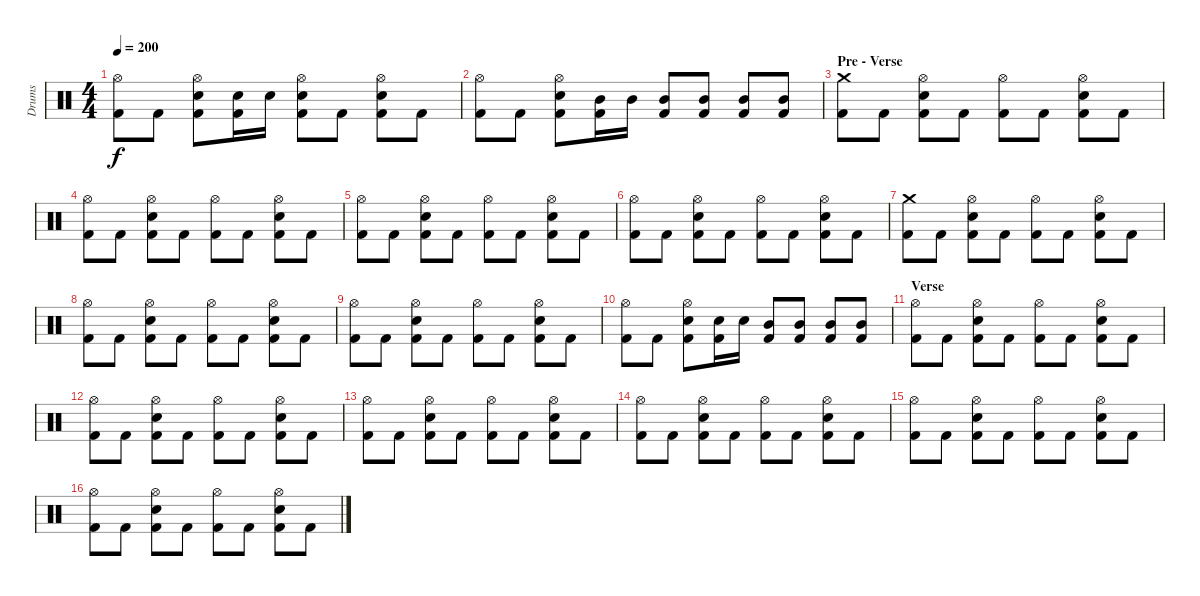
\track ("Drums" "Drums") {instrument percussion}
\staff {score}
\articulation defaults
\ts (4 4)
\tempo 200
\clef neutral
\ks c
("Hi-Hat (open)" "Kick (hit) 2").8{dy f} "Kick (hit) 2".8 ("Hi-Hat (open)" "Snare (hit) 2" "Kick (hit) 2").8 ("Snare (hit) 2" "Kick (hit) 2").16 "Snare (hit) 2".16 ("Hi-Hat (open)" "Snare (hit) 2" "Kick (hit) 2").8 "Kick (hit) 2".8 ("Hi-Hat (open)" "Snare (hit) 2" "Kick (hit) 2").8 "Kick (hit) 2".8 |
("Hi-Hat (open)" "Kick (hit) 2").8 "Kick (hit) 2".8 ("Hi-Hat (open)" "Snare (hit) 2" "Kick (hit) 2").8 ("Mid Tom (hit)" "Kick (hit) 2").16 "Mid Tom (hit)".16 ("Mid Tom (hit)" "Kick (hit) 2").8 ("Mid Tom (hit)" "Kick (hit) 2").8 ("Mid Tom (hit)" "Kick (hit) 2").8 ("Mid Tom (hit)" "Kick (hit) 2").8 |
\section ("" "Pre - Verse")
("Crash medium (hit)" "Kick (hit) 2").8 "Kick (hit) 2".8 ("Hi-Hat (open)" "Snare (hit) 2" "Kick (hit) 2").8 "Kick (hit) 2".8 ("Hi-Hat (open)" "Kick (hit) 2").8 "Kick (hit) 2".8 ("Hi-Hat (open)" "Snare (hit) 2" "Kick (hit) 2").8 "Kick (hit) 2".8 |
("Hi-Hat (open)" "Kick (hit) 2").8 "Kick (hit) 2".8 ("Hi-Hat (open)" "Snare (hit) 2" "Kick (hit) 2").8 "Kick (hit) 2".8 ("Hi-Hat (open)" "Kick (hit) 2").8 "Kick (hit) 2".8 ("Hi-Hat (open)" "Snare (hit) 2" "Kick (hit) 2").8 "Kick (hit) 2".8 |
("Hi-Hat (open)" "Kick (hit) 2").8 "Kick (hit) 2".8 ("Hi-Hat (open)" "Snare (hit) 2" "Kick (hit) 2").8 "Kick (hit) 2".8 ("Hi-Hat (open)" "Kick (hit) 2").8 "Kick (hit) 2".8 ("Hi-Hat (open)" "Snare (hit) 2" "Kick (hit) 2").8 "Kick (hit) 2".8 |
("Hi-Hat (open)" "Kick (hit) 2").8 "Kick (hit) 2".8 ("Hi-Hat (open)" "Snare (hit) 2" "Kick (hit) 2").8 "Kick (hit) 2".8 ("Hi-Hat (open)" "Kick (hit) 2").8 "Kick (hit) 2".8 ("Hi-Hat (open)" "Snare (hit) 2" "Kick (hit) 2").8 "Kick (hit) 2".8 |
("Crash medium (hit)" "Kick (hit) 2").8 "Kick (hit) 2".8 ("Hi-Hat (open)" "Snare (hit) 2" "Kick (hit) 2").8 "Kick (hit) 2".8 ("Hi-Hat (open)" "Kick (hit) 2").8 "Kick (hit) 2".8 ("Hi-Hat (open)" "Snare (hit) 2" "Kick (hit) 2").8 "Kick (hit) 2".8 |
("Hi-Hat (open)" "Kick (hit) 2").8 "Kick (hit) 2".8 ("Hi-Hat (open)" "Snare (hit) 2" "Kick (hit) 2").8 "Kick (hit) 2".8 ("Hi-Hat (open)" "Kick (hit) 2").8 "Kick (hit) 2".8 ("Hi-Hat (open)" "Snare (hit) 2" "Kick (hit) 2").8 "Kick (hit) 2".8 |
("Hi-Hat (open)" "Kick (hit) 2").8 "Kick (hit) 2".8 ("Hi-Hat (open)" "Snare (hit) 2" "Kick (hit) 2").8 "Kick (hit) 2".8 ("Hi-Hat (open)" "Kick (hit) 2").8 "Kick (hit) 2".8 ("Hi-Hat (open)" "Snare (hit) 2" "Kick (hit) 2").8 "Kick (hit) 2".8 |
("Hi-Hat (open)" "Kick (hit) 2").8 "Kick (hit) 2".8 ("Hi-Hat (open)" "Snare (hit) 2" "Kick (hit) 2").8 ("Snare (hit) 2" "Kick (hit) 2").16 "Snare (hit) 2".16 ("Mid Tom (hit)" "Kick (hit) 2").8 ("Mid Tom (hit)" "Kick (hit) 2").8 ("Mid Tom (hit)" "Kick (hit) 2").8 ("Mid Tom (hit)" "Kick (hit) 2").8 |
\section ("" "Verse")
("Hi-Hat (open)" "Kick (hit) 2").8 "Kick (hit) 2".8 ("Hi-Hat (open)" "Snare (hit) 2" "Kick (hit) 2").8 "Kick (hit) 2".8 ("Hi-Hat (open)" "Kick (hit) 2").8 "Kick (hit) 2".8 ("Hi-Hat (open)" "Snare (hit) 2" "Kick (hit) 2").8 "Kick (hit) 2".8 |
("Hi-Hat (open)" "Kick (hit) 2").8 "Kick (hit) 2".8 ("Hi-Hat (open)" "Snare (hit) 2" "Kick (hit) 2").8 "Kick (hit) 2".8 ("Hi-Hat (open)" "Kick (hit) 2").8 "Kick (hit) 2".8 ("Hi-Hat (open)" "Snare (hit) 2" "Kick (hit) 2").8 "Kick (hit) 2".8 |
("Hi-Hat (open)" "Kick (hit) 2").8 "Kick (hit) 2".8 ("Hi-Hat (open)" "Snare (hit) 2" "Kick (hit) 2").8 "Kick (hit) 2".8 ("Hi-Hat (open)" "Kick (hit) 2").8 "Kick (hit) 2".8 ("Hi-Hat (open)" "Snare (hit) 2" "Kick (hit) 2").8 "Kick (hit) 2".8 |
("Hi-Hat (open)" "Kick (hit) 2").8 "Kick (hit) 2".8 ("Hi-Hat (open)" "Snare (hit) 2" "Kick (hit) 2").8 "Kick (hit) 2".8 ("Hi-Hat (open)" "Kick (hit) 2").8 "Kick (hit) 2".8 ("Hi-Hat (open)" "Snare (hit) 2" "Kick (hit) 2").8 "Kick (hit) 2".8 |
("Hi-Hat (open)" "Kick (hit) 2").8 "Kick (hit) 2".8 ("Hi-Hat (open)" "Snare (hit) 2" "Kick (hit) 2").8 "Kick (hit) 2".8 ("Hi-Hat (open)" "Kick (hit) 2").8 "Kick (hit) 2".8 ("Hi-Hat (open)" "Snare (hit) 2" "Kick (hit) 2").8 "Kick (hit) 2".8 |
("Hi-Hat (open)" "Kick (hit) 2").8 "Kick (hit) 2".8 ("Hi-Hat (open)" "Snare (hit) 2" "Kick (hit) 2").8 "Kick (hit) 2".8 ("Hi-Hat (open)" "Kick (hit) 2").8 "Kick (hit) 2".8 ("Hi-Hat (open)" "Snare (hit) 2" "Kick (hit) 2").8 "Kick (hit) 2".8
